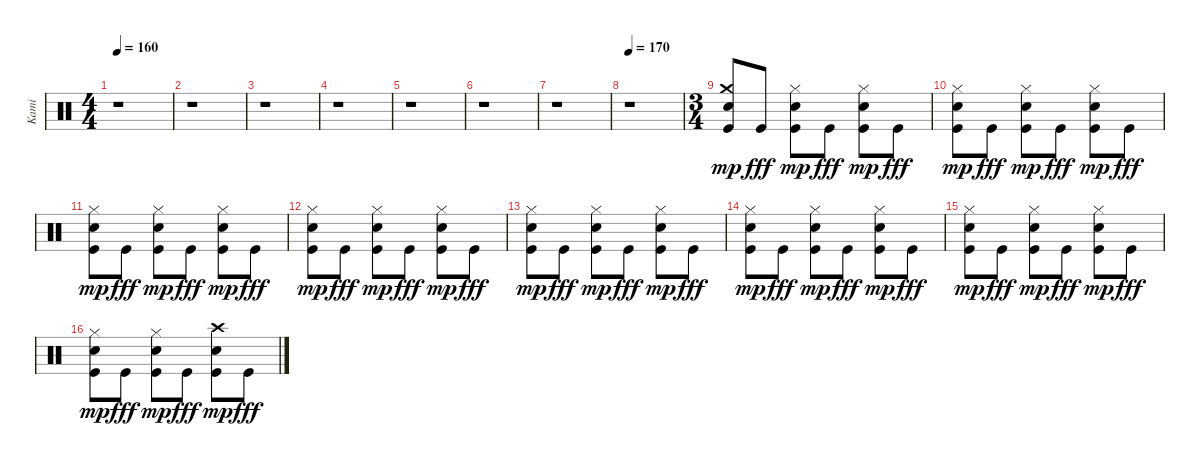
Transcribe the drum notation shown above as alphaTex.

\track ("Kami" "Kami") {instrument percussion}
\staff {score}
\articulation defaults
\ts (4 4)
\tempo 160
\clef neutral
\ks c
r.1{dy fff} |
r.1 |
r.1 |
r.1 |
r.1 |
r.1 |
r.1 |
\tempo 170
r.1 |
\ts (3 4)
("Kick (hit)" "Crash medium (hit)" "Snare (hit) 2").8{dy mp volume 12} "Kick (hit)".8{dy fff} ("Kick (hit)" "Snare (hit) 2" "Hi-Hat (closed)").8{dy mp} "Kick (hit)".8{dy fff} ("Kick (hit)" "Hi-Hat (closed)" "Snare (hit) 2").8{dy mp} "Kick (hit)".8{dy fff} |
("Kick (hit)" "Hi-Hat (closed)" "Snare (hit) 2").8{dy mp} "Kick (hit)".8{dy fff} ("Kick (hit)" "Hi-Hat (closed)" "Snare (hit) 2").8{dy mp} "Kick (hit)".8{dy fff} ("Kick (hit)" "Hi-Hat (closed)" "Snare (hit) 2").8{dy mp} "Kick (hit)".8{dy fff} |
("Kick (hit)" "Hi-Hat (closed)" "Snare (hit) 2").8{dy mp} "Kick (hit)".8{dy fff} ("Kick (hit)" "Hi-Hat (closed)" "Snare (hit) 2").8{dy mp} "Kick (hit)".8{dy fff} ("Kick (hit)" "Hi-Hat (closed)" "Snare (hit) 2").8{dy mp} "Kick (hit)".8{dy fff} |
("Kick (hit)" "Hi-Hat (closed)" "Snare (hit) 2").8{dy mp} "Kick (hit)".8{dy fff} ("Kick (hit)" "Hi-Hat (closed)" "Snare (hit) 2").8{dy mp} "Kick (hit)".8{dy fff} ("Kick (hit)" "Hi-Hat (closed)" "Snare (hit) 2").8{dy mp} "Kick (hit)".8{dy fff} |
("Kick (hit)" "Hi-Hat (closed)" "Snare (hit) 2").8{dy mp} "Kick (hit)".8{dy fff} ("Kick (hit)" "Hi-Hat (closed)" "Snare (hit) 2").8{dy mp} "Kick (hit)".8{dy fff} ("Kick (hit)" "Hi-Hat (closed)" "Snare (hit) 2").8{dy mp} "Kick (hit)".8{dy fff} |
("Kick (hit)" "Hi-Hat (closed)" "Snare (hit) 2").8{dy mp} "Kick (hit)".8{dy fff} ("Kick (hit)" "Hi-Hat (closed)" "Snare (hit) 2").8{dy mp} "Kick (hit)".8{dy fff} ("Kick (hit)" "Hi-Hat (closed)" "Snare (hit) 2").8{dy mp} "Kick (hit)".8{dy fff} |
("Kick (hit)" "Hi-Hat (closed)" "Snare (hit) 2").8{dy mp} "Kick (hit)".8{dy fff} ("Kick (hit)" "Hi-Hat (closed)" "Snare (hit) 2").8{dy mp} "Kick (hit)".8{dy fff} ("Kick (hit)" "Hi-Hat (closed)" "Snare (hit) 2").8{dy mp} "Kick (hit)".8{dy fff} |
("Kick (hit)" "Hi-Hat (closed)" "Snare (hit) 2").8{dy mp} "Kick (hit)".8{dy fff} ("Kick (hit)" "Hi-Hat (closed)" "Snare (hit) 2").8{dy mp} "Kick (hit)".8{dy fff} ("Kick (hit)" "Crash high (hit)" "Snare (hit) 2").8{dy mp} "Kick (hit)".8{dy fff}
